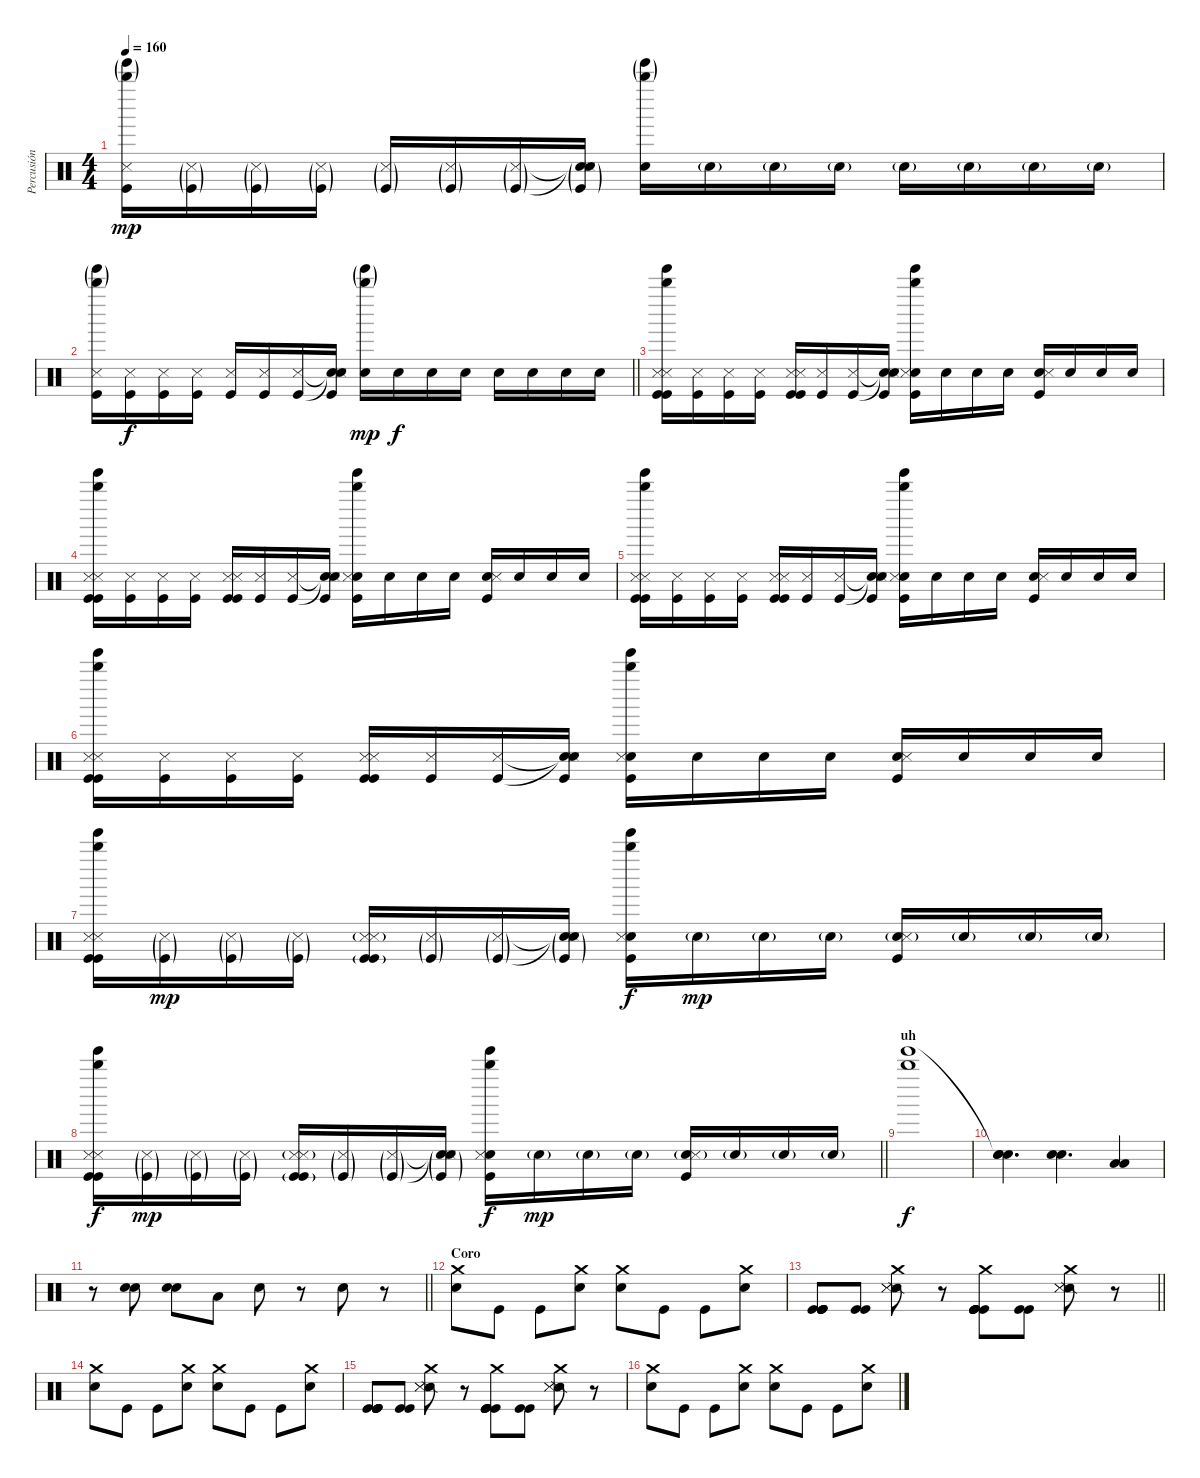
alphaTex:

\track ("Percusión" "Percusión") {instrument percussion}
\staff {score}
\articulation defaults
\ts (4 4)
\tempo 160
\clef neutral
\ks c
("Tinkle Bell (hit)"{g} "Whistle high (hit)"{g} "Kick (hit)" "Snare (side stick) 3").16{dy mp} ("Kick (hit)"{g} "Snare (side stick) 3"{g}).16 ("Kick (hit)"{g} "Snare (side stick) 3"{g}).16 ("Kick (hit)"{g} "Snare (side stick) 3"{g}).16 ("Kick (hit)"{g} "Snare (side stick) 3"{g}).16 ("Kick (hit)"{g} "Snare (side stick) 3"{g}).16 ("Kick (hit)"{g} "Snare (side stick) 3"{g}).16 ("Snare (hit)"{t} "Snare (hit)"{t} "Kick (hit)"{g} "Snare (side stick) 3"{g}).16 ("Tinkle Bell (hit)"{g} "Whistle high (hit)"{g} "Snare (hit) 2").16 "Snare (hit) 2"{g}.16 "Snare (hit) 2"{g}.16 "Snare (hit) 2"{g}.16 "Snare (hit) 2"{g}.16 "Snare (hit) 2"{g}.16 "Snare (hit) 2"{g}.16 "Snare (hit) 2"{g}.16 |
\barLineRight lightlight
("Tinkle Bell (hit)"{g} "Whistle high (hit)"{g} "Kick (hit)" "Snare (side stick) 3").16 ("Kick (hit)" "Snare (side stick) 3").16{dy f} ("Kick (hit)" "Snare (side stick) 3").16 ("Kick (hit)" "Snare (side stick) 3").16 ("Kick (hit)" "Snare (side stick) 3").16 ("Kick (hit)" "Snare (side stick) 3").16 ("Kick (hit)" "Snare (side stick) 3").16 ("Snare (hit)"{t} "Snare (hit)"{t} "Kick (hit)" "Snare (side stick) 3").16 ("Tinkle Bell (hit)"{g} "Whistle high (hit)"{g} "Snare (hit) 2").16{dy mp} "Snare (hit) 2".16{dy f} "Snare (hit) 2".16 "Snare (hit) 2".16 "Snare (hit) 2".16 "Snare (hit) 2".16 "Snare (hit) 2".16 "Snare (hit) 2".16 |
\section ("" "")
("Tinkle Bell (hit)" "Whistle high (hit)" "Kick (hit)" "Snare (side stick) 3" "Snare (side stick) 3" "Kick (hit)").16 ("Kick (hit)" "Snare (side stick) 3").16 ("Kick (hit)" "Snare (side stick) 3").16 ("Kick (hit)" "Snare (side stick) 3").16 ("Kick (hit)" "Snare (side stick) 3" "Snare (side stick) 3" "Kick (hit)").16 ("Kick (hit)" "Snare (side stick) 3").16 ("Kick (hit)" "Snare (side stick) 3").16 ("Snare (hit)"{t} "Snare (hit)"{t} "Kick (hit)" "Snare (side stick) 3").16 ("Tinkle Bell (hit)" "Whistle high (hit)" "Snare (hit) 2" "Snare (side stick) 3" "Kick (hit)").16 "Snare (hit) 2".16 "Snare (hit) 2".16 "Snare (hit) 2".16 ("Snare (hit) 2" "Snare (side stick) 3" "Kick (hit)").16 "Snare (hit) 2".16 "Snare (hit) 2".16 "Snare (hit) 2".16 |
("Tinkle Bell (hit)" "Whistle high (hit)" "Kick (hit)" "Snare (side stick) 3" "Snare (side stick) 3" "Kick (hit)").16 ("Kick (hit)" "Snare (side stick) 3").16 ("Kick (hit)" "Snare (side stick) 3").16 ("Kick (hit)" "Snare (side stick) 3").16 ("Kick (hit)" "Snare (side stick) 3" "Snare (side stick) 3" "Kick (hit)").16 ("Kick (hit)" "Snare (side stick) 3").16 ("Kick (hit)" "Snare (side stick) 3").16 ("Snare (hit)"{t} "Snare (hit)"{t} "Kick (hit)" "Snare (side stick) 3").16 ("Tinkle Bell (hit)" "Whistle high (hit)" "Snare (hit) 2" "Snare (side stick) 3" "Kick (hit)").16 "Snare (hit) 2".16 "Snare (hit) 2".16 "Snare (hit) 2".16 ("Snare (hit) 2" "Snare (side stick) 3" "Kick (hit)").16 "Snare (hit) 2".16 "Snare (hit) 2".16 "Snare (hit) 2".16 |
("Tinkle Bell (hit)" "Whistle high (hit)" "Kick (hit)" "Snare (side stick) 3" "Snare (side stick) 3" "Kick (hit)").16 ("Kick (hit)" "Snare (side stick) 3").16 ("Kick (hit)" "Snare (side stick) 3").16 ("Kick (hit)" "Snare (side stick) 3").16 ("Kick (hit)" "Snare (side stick) 3" "Snare (side stick) 3" "Kick (hit)").16 ("Kick (hit)" "Snare (side stick) 3").16 ("Kick (hit)" "Snare (side stick) 3").16 ("Snare (hit)"{t} "Snare (hit)"{t} "Kick (hit)" "Snare (side stick) 3").16 ("Tinkle Bell (hit)" "Whistle high (hit)" "Snare (hit) 2" "Snare (side stick) 3" "Kick (hit)").16 "Snare (hit) 2".16 "Snare (hit) 2".16 "Snare (hit) 2".16 ("Snare (hit) 2" "Snare (side stick) 3" "Kick (hit)").16 "Snare (hit) 2".16 "Snare (hit) 2".16 "Snare (hit) 2".16 |
("Tinkle Bell (hit)" "Whistle high (hit)" "Kick (hit)" "Snare (side stick) 3" "Snare (side stick) 3" "Kick (hit)").16 ("Kick (hit)" "Snare (side stick) 3").16 ("Kick (hit)" "Snare (side stick) 3").16 ("Kick (hit)" "Snare (side stick) 3").16 ("Kick (hit)" "Snare (side stick) 3" "Snare (side stick) 3" "Kick (hit)").16 ("Kick (hit)" "Snare (side stick) 3").16 ("Kick (hit)" "Snare (side stick) 3").16 ("Snare (hit)"{t} "Snare (hit)"{t} "Kick (hit)" "Snare (side stick) 3").16 ("Tinkle Bell (hit)" "Whistle high (hit)" "Snare (hit) 2" "Snare (side stick) 3" "Kick (hit)").16 "Snare (hit) 2".16 "Snare (hit) 2".16 "Snare (hit) 2".16 ("Snare (hit) 2" "Snare (side stick) 3" "Kick (hit)").16 "Snare (hit) 2".16 "Snare (hit) 2".16 "Snare (hit) 2".16 |
("Tinkle Bell (hit)" "Whistle high (hit)" "Kick (hit)" "Snare (side stick) 3" "Snare (side stick) 3" "Kick (hit)").16 ("Kick (hit)"{g} "Snare (side stick) 3"{g}).16{dy mp} ("Kick (hit)"{g} "Snare (side stick) 3"{g}).16 ("Kick (hit)"{g} "Snare (side stick) 3"{g}).16 ("Kick (hit)"{g} "Snare (side stick) 3"{g} "Snare (side stick) 3" "Kick (hit)").16 ("Kick (hit)"{g} "Snare (side stick) 3"{g}).16 ("Kick (hit)"{g} "Snare (side stick) 3"{g}).16 ("Snare (hit)"{t} "Snare (hit)"{t} "Kick (hit)"{g} "Snare (side stick) 3"{g}).16 ("Tinkle Bell (hit)" "Whistle high (hit)" "Snare (hit) 2" "Snare (side stick) 3" "Kick (hit)").16{dy f} "Snare (hit) 2"{g}.16{dy mp} "Snare (hit) 2"{g}.16 "Snare (hit) 2"{g}.16 ("Snare (hit) 2"{g} "Snare (side stick) 3" "Kick (hit)").16 "Snare (hit) 2"{g}.16 "Snare (hit) 2"{g}.16 "Snare (hit) 2"{g}.16 |
\barLineRight lightlight
("Tinkle Bell (hit)" "Whistle high (hit)" "Kick (hit)" "Snare (side stick) 3" "Snare (side stick) 3" "Kick (hit)").16{dy f} ("Kick (hit)"{g} "Snare (side stick) 3"{g}).16{dy mp} ("Kick (hit)"{g} "Snare (side stick) 3"{g}).16 ("Kick (hit)"{g} "Snare (side stick) 3"{g}).16 ("Kick (hit)"{g} "Snare (side stick) 3"{g} "Snare (side stick) 3" "Kick (hit)").16 ("Kick (hit)"{g} "Snare (side stick) 3"{g}).16 ("Kick (hit)"{g} "Snare (side stick) 3"{g}).16 ("Snare (hit)"{t} "Snare (hit)"{t} "Kick (hit)"{g} "Snare (side stick) 3"{g}).16 ("Tinkle Bell (hit)" "Whistle high (hit)" "Snare (hit) 2" "Snare (side stick) 3" "Kick (hit)").16{dy f} "Snare (hit) 2"{g}.16{dy mp} "Snare (hit) 2"{g}.16 "Snare (hit) 2"{g}.16 ("Snare (hit) 2"{g} "Snare (side stick) 3" "Kick (hit)").16 "Snare (hit) 2"{g}.16 "Snare (hit) 2"{g}.16 "Snare (hit) 2"{g}.16 |
\section ("" "uh")
("Tinkle Bell (hit)" "Whistle high (hit)").1{dy f} |
("Snare (hit)"{t} "Electric Snare (hit)" "Electric Snare (hit)").4{d} ("Snare (hit) 2" "Snare (hit) 2").4{d} ("Low Floor Tom (hit)" "Low Floor Tom (hit)").4 |
\barLineRight lightlight
r.8 ("Electric Snare (hit)" "Electric Snare (hit)").8 ("Electric Snare (hit)" "Electric Snare (hit)").8 "Low Floor Tom (hit)".8 "Snare (hit) 2".8 r.8 "Snare (hit) 2".8 r.8 |
\section ("" "Coro")
("Crash medium (hit)" "Electric Snare (hit)").8 "Kick (hit)".8 "Kick (hit)".8 ("Crash medium (hit)" "Electric Snare (hit)").8 ("Crash medium (hit)" "Electric Snare (hit)").8 "Kick (hit)".8 "Kick (hit)".8 ("Crash medium (hit)" "Electric Snare (hit)").8 |
\barLineRight lightlight
("Kick (hit)" "Kick (hit)" "Kick (hit)" "Kick (hit)" "Kick (hit)").8 ("Kick (hit)" "Kick (hit)").8 ("Crash medium (hit)" "Snare (side stick) 2" "Metronome (hit)" "Metronome (hit)").8 r.8 ("Crash medium (hit)" "Kick (hit)" "Kick (hit)" "Kick (hit)" "Kick (hit)" "Kick (hit)").8 ("Kick (hit)" "Kick (hit)").8 ("Crash medium (hit)" "Snare (side stick) 2" "Metronome (hit)" "Metronome (hit)").8 r.8 |
\section ("" "")
("Crash medium (hit)" "Electric Snare (hit)").8 "Kick (hit)".8 "Kick (hit)".8 ("Crash medium (hit)" "Electric Snare (hit)").8 ("Crash medium (hit)" "Electric Snare (hit)").8 "Kick (hit)".8 "Kick (hit)".8 ("Crash medium (hit)" "Electric Snare (hit)").8 |
("Kick (hit)" "Kick (hit)" "Kick (hit)" "Kick (hit)" "Kick (hit)").8 ("Kick (hit)" "Kick (hit)").8 ("Crash medium (hit)" "Snare (side stick) 2" "Metronome (hit)" "Metronome (hit)").8 r.8 ("Crash medium (hit)" "Kick (hit)" "Kick (hit)" "Kick (hit)" "Kick (hit)" "Kick (hit)").8 ("Kick (hit)" "Kick (hit)").8 ("Crash medium (hit)" "Snare (side stick) 2" "Metronome (hit)" "Metronome (hit)").8 r.8 |
("Crash medium (hit)" "Electric Snare (hit)").8 "Kick (hit)".8 "Kick (hit)".8 ("Crash medium (hit)" "Electric Snare (hit)").8 ("Crash medium (hit)" "Electric Snare (hit)").8 "Kick (hit)".8 "Kick (hit)".8 ("Crash medium (hit)" "Electric Snare (hit)").8
